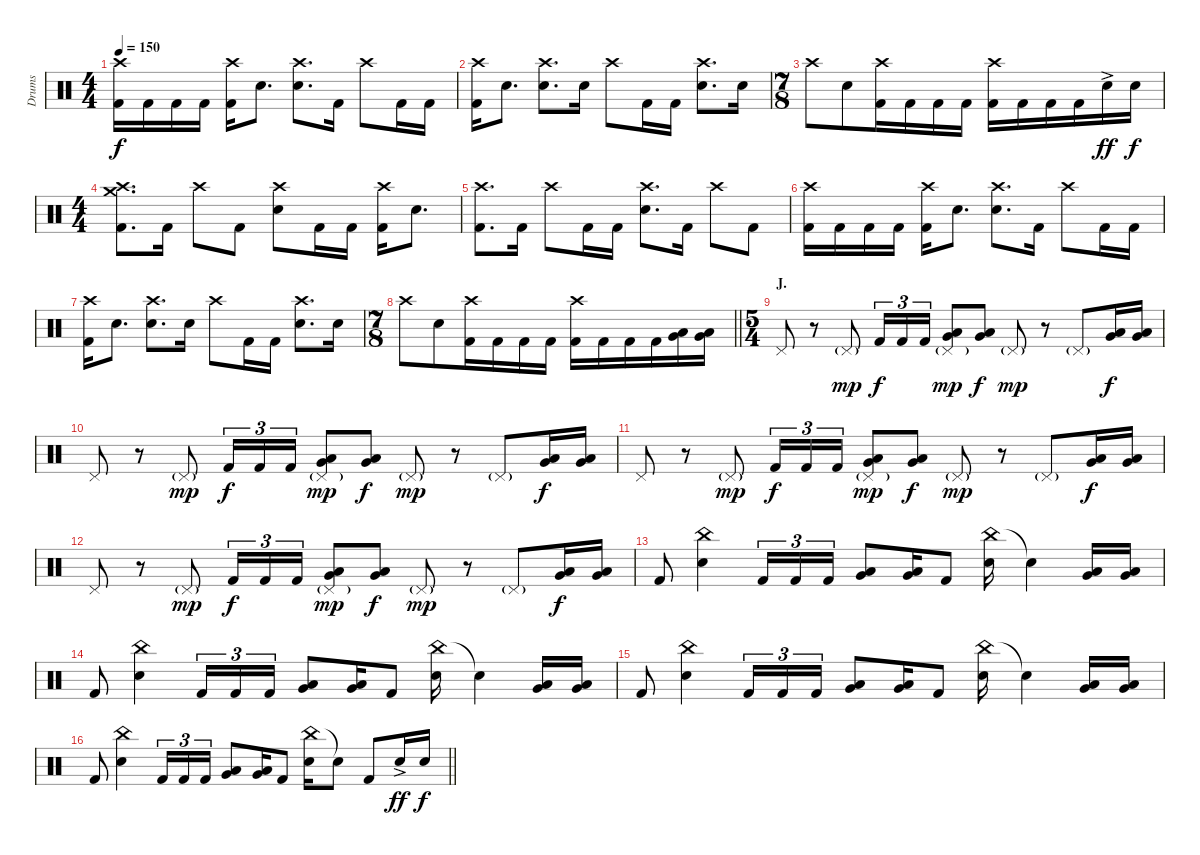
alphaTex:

\track ("Drums" "Drums") {instrument percussion}
\staff {score}
\articulation defaults
\ts (4 4)
\tempo 150
\clef neutral
\ks c
("Crash high (hit)" "Kick (hit) 2").16{dy f} "Kick (hit) 2".16 "Kick (hit) 2".16 "Kick (hit) 2".16 ("Crash high (hit)" "Kick (hit) 2").16 "Electric Snare (hit)".8{d} ("Crash high (hit)" "Electric Snare (hit)").8{d} "Kick (hit) 2".16 "Crash high (hit)".8 "Kick (hit) 2".16 "Kick (hit) 2".16 |
("Crash high (hit)" "Kick (hit) 2").16 "Electric Snare (hit)".8{d} ("Crash high (hit)" "Electric Snare (hit)").8{d} "Electric Snare (hit)".16 "Crash high (hit)".8 "Kick (hit) 2".16 "Kick (hit) 2".16 ("Crash high (hit)" "Electric Snare (hit)").8{d} "Electric Snare (hit)".16 |
\ts (7 8)
"Crash high (hit)".8 "Electric Snare (hit)".8 ("Crash high (hit)" "Kick (hit) 2").16 "Kick (hit) 2".16 "Kick (hit) 2".16 "Kick (hit) 2".16 ("Crash high (hit)" "Kick (hit) 2").16 "Kick (hit) 2".16 "Kick (hit) 2".16 "Kick (hit) 2".16 "Electric Snare (hit)"{ac}.16{dy ff} "Electric Snare (hit)".16{dy f} |
\ts (4 4)
("Crash medium (hit)" "Crash high (hit)" "Kick (hit) 2").8{d} "Kick (hit) 2".16 "Crash high (hit)".8 "Kick (hit) 2".8 ("Crash high (hit)" "Electric Snare (hit)").8 "Kick (hit) 2".16 "Kick (hit) 2".16 ("Crash high (hit)" "Kick (hit) 2").16 "Electric Snare (hit)".8{d} |
("Crash high (hit)" "Kick (hit) 2").8{d} "Kick (hit) 2".16 "Crash high (hit)".8 "Kick (hit) 2".16 "Kick (hit) 2".16 ("Crash high (hit)" "Electric Snare (hit)").8{d} "Kick (hit) 2".16 "Crash high (hit)".8 "Kick (hit) 2".8 |
("Crash high (hit)" "Kick (hit) 2").16 "Kick (hit) 2".16 "Kick (hit) 2".16 "Kick (hit) 2".16 ("Crash high (hit)" "Kick (hit) 2").16 "Electric Snare (hit)".8{d} ("Crash high (hit)" "Electric Snare (hit)").8{d} "Kick (hit) 2".16 "Crash high (hit)".8 "Kick (hit) 2".16 "Kick (hit) 2".16 |
("Crash high (hit)" "Kick (hit) 2").16 "Electric Snare (hit)".8{d} ("Crash high (hit)" "Electric Snare (hit)").8{d} "Electric Snare (hit)".16 "Crash high (hit)".8 "Kick (hit) 2".16 "Kick (hit) 2".16 ("Crash high (hit)" "Electric Snare (hit)").8{d} "Electric Snare (hit)".16 |
\ts (7 8)
\barLineRight lightlight "Crash high (hit)".8 "Electric Snare (hit)".8
("Crash high (hit)" "Kick (hit) 2").16 "Kick (hit) 2".16 "Kick (hit) 2".16 "Kick (hit) 2".16 ("Crash high (hit)" "Kick (hit) 2").16 "Kick (hit) 2".16 "Kick (hit) 2".16 "Kick (hit) 2".16 ("Low Tom (hit)" "Very Low Tom (hit)").16 ("Low Tom (hit)" "Very Low Tom (hit)").16 |
\ts (5 4)
\section ("" "J.")
"Pedal Hi-Hat (hit)".8 r.8 "Pedal Hi-Hat (hit)"{g}.8{dy mp} "Kick (hit) 2".16{tu (3 2) dy f} "Kick (hit) 2".16{tu (3 2)} "Kick (hit) 2".16{tu (3 2)} ("Pedal Hi-Hat (hit)"{g} "Low Tom (hit)" "Very Low Tom (hit)").8{dy mp} ("Low Tom (hit)" "Very Low Tom (hit)").8{dy f} "Pedal Hi-Hat (hit)"{g}.8{dy mp} r.8 "Pedal Hi-Hat (hit)"{g}.8 ("Low Tom (hit)" "Very Low Tom (hit)").16{dy f} ("Low Tom (hit)" "Very Low Tom (hit)").16 |
"Pedal Hi-Hat (hit)".8 r.8 "Pedal Hi-Hat (hit)"{g}.8{dy mp} "Kick (hit) 2".16{tu (3 2) dy f} "Kick (hit) 2".16{tu (3 2)} "Kick (hit) 2".16{tu (3 2)} ("Pedal Hi-Hat (hit)"{g} "Low Tom (hit)" "Very Low Tom (hit)").8{dy mp} ("Low Tom (hit)" "Very Low Tom (hit)").8{dy f} "Pedal Hi-Hat (hit)"{g}.8{dy mp} r.8 "Pedal Hi-Hat (hit)"{g}.8 ("Low Tom (hit)" "Very Low Tom (hit)").16{dy f} ("Low Tom (hit)" "Very Low Tom (hit)").16 |
"Pedal Hi-Hat (hit)".8 r.8 "Pedal Hi-Hat (hit)"{g}.8{dy mp} "Kick (hit) 2".16{tu (3 2) dy f} "Kick (hit) 2".16{tu (3 2)} "Kick (hit) 2".16{tu (3 2)} ("Pedal Hi-Hat (hit)"{g} "Low Tom (hit)" "Very Low Tom (hit)").8{dy mp} ("Low Tom (hit)" "Very Low Tom (hit)").8{dy f} "Pedal Hi-Hat (hit)"{g}.8{dy mp} r.8 "Pedal Hi-Hat (hit)"{g}.8 ("Low Tom (hit)" "Very Low Tom (hit)").16{dy f} ("Low Tom (hit)" "Very Low Tom (hit)").16 |
"Pedal Hi-Hat (hit)".8 r.8 "Pedal Hi-Hat (hit)"{g}.8{dy mp} "Kick (hit) 2".16{tu (3 2) dy f} "Kick (hit) 2".16{tu (3 2)} "Kick (hit) 2".16{tu (3 2)} ("Pedal Hi-Hat (hit)"{g} "Low Tom (hit)" "Very Low Tom (hit)").8{dy mp} ("Low Tom (hit)" "Very Low Tom (hit)").8{dy f} "Pedal Hi-Hat (hit)"{g}.8{dy mp} r.8 "Pedal Hi-Hat (hit)"{g}.8 ("Low Tom (hit)" "Very Low Tom (hit)").16{dy f} ("Low Tom (hit)" "Very Low Tom (hit)").16 |
"Kick (hit) 2".8 ("China (hit)" "Electric Snare (hit)").4 "Kick (hit) 2".16{tu (3 2)} "Kick (hit) 2".16{tu (3 2)} "Kick (hit) 2".16{tu (3 2)} ("Low Tom (hit)" "Very Low Tom (hit)").8 ("Low Tom (hit)" "Very Low Tom (hit)").16 "Kick (hit) 2".8 ("China (hit)" "Electric Snare (hit)").16 "Snare (hit)"{t}.4 ("Low Tom (hit)" "Very Low Tom (hit)").16 ("Low Tom (hit)" "Very Low Tom (hit)").16 |
"Kick (hit) 2".8 ("China (hit)" "Electric Snare (hit)").4 "Kick (hit) 2".16{tu (3 2)} "Kick (hit) 2".16{tu (3 2)} "Kick (hit) 2".16{tu (3 2)} ("Low Tom (hit)" "Very Low Tom (hit)").8 ("Low Tom (hit)" "Very Low Tom (hit)").16 "Kick (hit) 2".8 ("China (hit)" "Electric Snare (hit)").16 "Snare (hit)"{t}.4 ("Low Tom (hit)" "Very Low Tom (hit)").16 ("Low Tom (hit)" "Very Low Tom (hit)").16 |
"Kick (hit) 2".8 ("China (hit)" "Electric Snare (hit)").4 "Kick (hit) 2".16{tu (3 2)} "Kick (hit) 2".16{tu (3 2)} "Kick (hit) 2".16{tu (3 2)} ("Low Tom (hit)" "Very Low Tom (hit)").8 ("Low Tom (hit)" "Very Low Tom (hit)").16 "Kick (hit) 2".8 ("China (hit)" "Electric Snare (hit)").16 "Snare (hit)"{t}.4 ("Low Tom (hit)" "Very Low Tom (hit)").16 ("Low Tom (hit)" "Very Low Tom (hit)").16 |
\barLineRight lightlight "Kick (hit) 2".8
("China (hit)" "Electric Snare (hit)").4 "Kick (hit) 2".16{tu (3 2)} "Kick (hit) 2".16{tu (3 2)} "Kick (hit) 2".16{tu (3 2)} ("Low Tom (hit)" "Very Low Tom (hit)").8 ("Low Tom (hit)" "Very Low Tom (hit)").16 "Kick (hit) 2".8 ("China (hit)" "Electric Snare (hit)").16 "Snare (hit)"{t}.8 "Kick (hit) 2".8 "Electric Snare (hit)"{ac}.16{dy ff} "Electric Snare (hit)".16{dy f}
